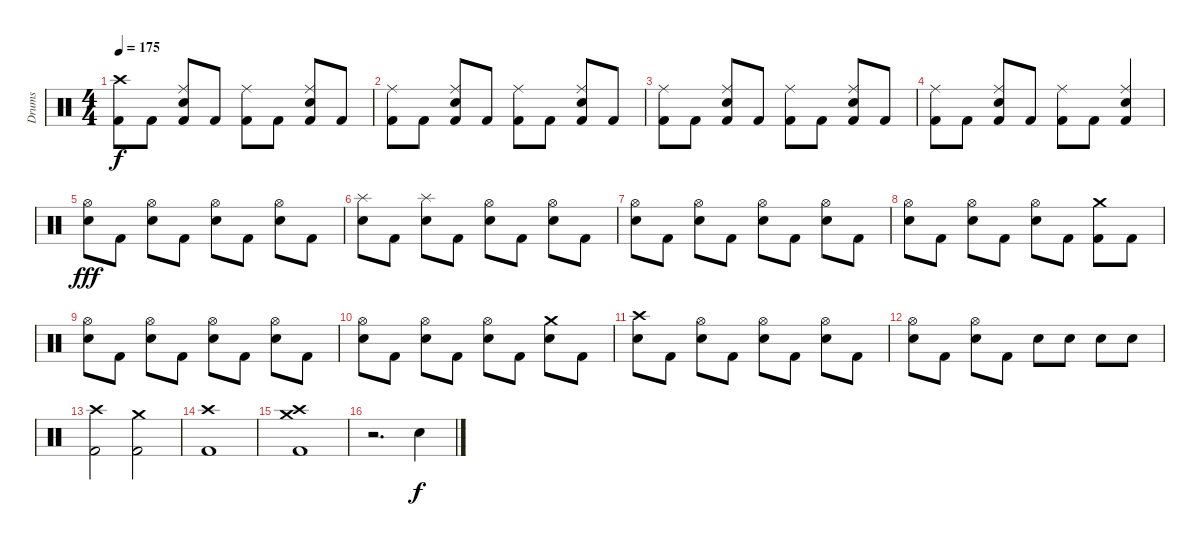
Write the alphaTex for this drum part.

\track ("Drums" "Drums") {instrument percussion}
\staff {score}
\articulation defaults
\ts (4 4)
\tempo 175
\clef neutral
\ks c
("Crash high (hit)" "Kick (hit) 2").8{dy f} "Kick (hit) 2".8 ("Ride (middle)" "Electric Snare (hit)" "Kick (hit) 2").8 "Kick (hit) 2".8 ("Ride (middle)" "Kick (hit) 2").8 "Kick (hit) 2".8 ("Ride (middle)" "Electric Snare (hit)" "Kick (hit) 2").8 "Kick (hit) 2".8 |
("Ride (middle)" "Kick (hit) 2").8 "Kick (hit) 2".8 ("Ride (middle)" "Electric Snare (hit)" "Kick (hit) 2").8 "Kick (hit) 2".8 ("Ride (middle)" "Kick (hit) 2").8 "Kick (hit) 2".8 ("Ride (middle)" "Electric Snare (hit)" "Kick (hit) 2").8 "Kick (hit) 2".8 |
("Ride (middle)" "Kick (hit) 2").8 "Kick (hit) 2".8 ("Ride (middle)" "Electric Snare (hit)" "Kick (hit) 2").8 "Kick (hit) 2".8 ("Ride (middle)" "Kick (hit) 2").8 "Kick (hit) 2".8 ("Ride (middle)" "Electric Snare (hit)" "Kick (hit) 2").8 "Kick (hit) 2".8 |
("Ride (middle)" "Kick (hit) 2").8 "Kick (hit) 2".8 ("Ride (middle)" "Electric Snare (hit)" "Kick (hit) 2").8 "Kick (hit) 2".8 ("Ride (middle)" "Kick (hit) 2").8 "Kick (hit) 2".8 ("Ride (middle)" "Electric Snare (hit)" "Kick (hit) 2").4 |
("Hi-Hat (open)" "Electric Snare (hit)").8{dy fff} "Kick (hit) 2".8 ("Hi-Hat (open)" "Electric Snare (hit)").8 "Kick (hit) 2".8 ("Hi-Hat (open)" "Electric Snare (hit)").8 "Kick (hit) 2".8 ("Hi-Hat (open)" "Electric Snare (hit)").8 "Kick (hit) 2".8 |
("Splash (hit)" "Electric Snare (hit)").8 "Kick (hit) 2".8 ("Splash (hit)" "Electric Snare (hit)").8 "Kick (hit) 2".8 ("Hi-Hat (open)" "Electric Snare (hit)").8 "Kick (hit) 2".8 ("Hi-Hat (open)" "Electric Snare (hit)").8 "Kick (hit) 2".8 |
("Hi-Hat (open)" "Electric Snare (hit)").8 "Kick (hit) 2".8 ("Hi-Hat (open)" "Electric Snare (hit)").8 "Kick (hit) 2".8 ("Hi-Hat (open)" "Electric Snare (hit)").8 "Kick (hit) 2".8 ("Hi-Hat (open)" "Electric Snare (hit)").8 "Kick (hit) 2".8 |
("Hi-Hat (open)" "Electric Snare (hit)").8 "Kick (hit) 2".8 ("Hi-Hat (open)" "Electric Snare (hit)").8 "Kick (hit) 2".8 ("Hi-Hat (open)" "Electric Snare (hit)").8 "Kick (hit) 2".8 ("Crash medium (hit)" "Kick (hit) 2").8 "Kick (hit) 2".8 |
("Hi-Hat (open)" "Electric Snare (hit)").8 "Kick (hit) 2".8 ("Hi-Hat (open)" "Electric Snare (hit)").8 "Kick (hit) 2".8 ("Hi-Hat (open)" "Electric Snare (hit)").8 "Kick (hit) 2".8 ("Hi-Hat (open)" "Electric Snare (hit)").8 "Kick (hit) 2".8 |
("Hi-Hat (open)" "Electric Snare (hit)").8 "Kick (hit) 2".8 ("Hi-Hat (open)" "Electric Snare (hit)").8 "Kick (hit) 2".8 ("Hi-Hat (open)" "Electric Snare (hit)").8 "Kick (hit) 2".8 ("Crash medium (hit)" "Electric Snare (hit)").8 "Kick (hit) 2".8 |
("Crash high (hit)" "Electric Snare (hit)").8 "Kick (hit) 2".8 ("Hi-Hat (open)" "Electric Snare (hit)").8 "Kick (hit) 2".8 ("Hi-Hat (open)" "Electric Snare (hit)").8 "Kick (hit) 2".8 ("Hi-Hat (open)" "Electric Snare (hit)").8 "Kick (hit) 2".8 |
("Hi-Hat (open)" "Electric Snare (hit)").8 "Kick (hit) 2".8 ("Hi-Hat (open)" "Electric Snare (hit)").8 "Kick (hit) 2".8 "Electric Snare (hit)".8 "Electric Snare (hit)".8 "Electric Snare (hit)".8 "Electric Snare (hit)".8 |
("Crash high (hit)" "Kick (hit) 2").2 ("Crash medium (hit)" "Kick (hit) 2").2 |
("Crash high (hit)" "Kick (hit) 2").1 |
("Crash medium (hit)" "Crash high (hit)" "Kick (hit) 2").1 |
r.2{d} "Electric Snare (hit)".4{dy f}
